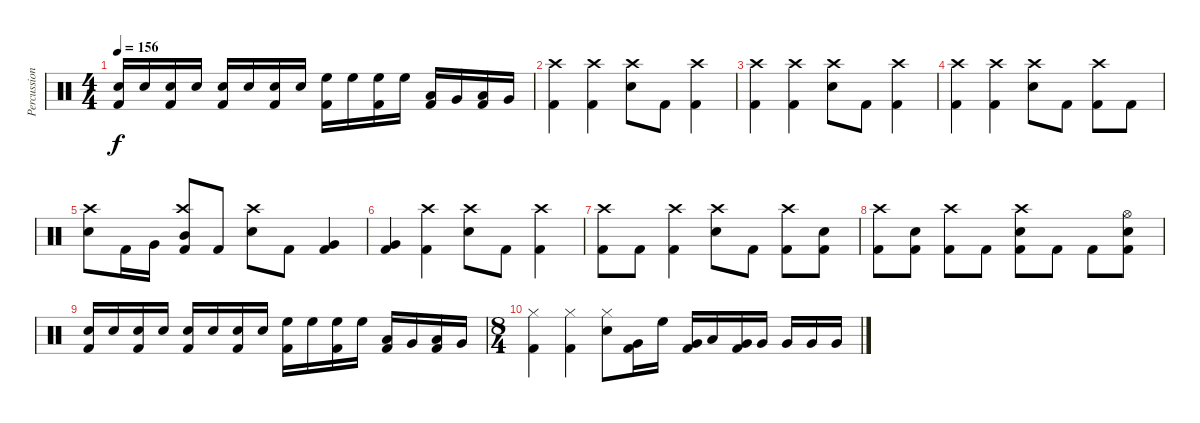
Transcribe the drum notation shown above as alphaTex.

\track ("Percussion" "Percussion") {instrument percussion}
\staff {score}
\articulation defaults
\ts (4 4)
\tempo 156
\clef neutral
\ks c
("Kick (hit) 2" "Electric Snare (hit)").16{dy f} "Electric Snare (hit)".16 ("Kick (hit) 2" "Electric Snare (hit)").16 "Electric Snare (hit)".16 ("Kick (hit) 2" "Electric Snare (hit)").16 "Electric Snare (hit)".16 ("Kick (hit) 2" "Electric Snare (hit)").16 "Electric Snare (hit)".16 ("Kick (hit) 2" "High Floor Tom (hit)").16 "High Floor Tom (hit)".16 ("Kick (hit) 2" "High Floor Tom (hit)").16 "High Floor Tom (hit)".16 ("Kick (hit) 2" "Low Tom (hit)").16 "Very Low Tom (hit)".16 ("Kick (hit) 2" "Low Tom (hit)").16 "Very Low Tom (hit)".16 |
("Kick (hit) 2" "Crash high (hit)").4 ("Kick (hit) 2" "Crash high (hit)").4 ("Electric Snare (hit)" "Crash high (hit)").8 "Kick (hit) 2".8 ("Kick (hit) 2" "Crash high (hit)").4 |
("Kick (hit) 2" "Crash high (hit)").4 ("Kick (hit) 2" "Crash high (hit)").4 ("Electric Snare (hit)" "Crash high (hit)").8 "Kick (hit) 2".8 ("Kick (hit) 2" "Crash high (hit)").4 |
("Kick (hit) 2" "Crash high (hit)").4 ("Kick (hit) 2" "Crash high (hit)").4 ("Electric Snare (hit)" "Crash high (hit)").8 "Kick (hit) 2".8 ("Kick (hit) 2" "Crash high (hit)").8 "Kick (hit) 2".8 |
("Electric Snare (hit)" "Crash high (hit)").8 "Kick (hit) 2".16 "Very Low Tom (hit)".16 ("Kick (hit) 2" "Mid Tom (hit)" "Crash high (hit)").8 "Kick (hit) 2".8 ("Electric Snare (hit)" "Crash high (hit)").8 "Kick (hit) 2".8 ("Kick (hit) 2" "Very Low Tom (hit)").4 |
("Kick (hit) 2" "Very Low Tom (hit)").4 ("Kick (hit) 2" "Crash high (hit)").4 ("Electric Snare (hit)" "Crash high (hit)").8 "Kick (hit) 2".8 ("Kick (hit) 2" "Crash high (hit)").4 |
("Kick (hit) 2" "Crash high (hit)").8 "Kick (hit) 2".8 ("Kick (hit) 2" "Crash high (hit)").4 ("Electric Snare (hit)" "Crash high (hit)").8 "Kick (hit) 2".8 ("Kick (hit) 2" "Crash high (hit)").8 ("Kick (hit) 2" "Electric Snare (hit)").8 |
("Kick (hit) 2" "Crash high (hit)").8 ("Kick (hit) 2" "Electric Snare (hit)").8 ("Kick (hit) 2" "Crash high (hit)").8 "Kick (hit) 2".8 ("Kick (hit) 2" "Electric Snare (hit)" "Crash high (hit)").8 "Kick (hit) 2".8 "Kick (hit) 2".8 ("Kick (hit) 2" "Electric Snare (hit)" "Hi-Hat (open)").8 |
("Kick (hit) 2" "Electric Snare (hit)").16 "Electric Snare (hit)".16 ("Kick (hit) 2" "Electric Snare (hit)").16 "Electric Snare (hit)".16 ("Kick (hit) 2" "Electric Snare (hit)").16 "Electric Snare (hit)".16 ("Kick (hit) 2" "Electric Snare (hit)").16 "Electric Snare (hit)".16 ("Kick (hit) 2" "High Floor Tom (hit)").16 "High Floor Tom (hit)".16 ("Kick (hit) 2" "High Floor Tom (hit)").16 "High Floor Tom (hit)".16 ("Kick (hit) 2" "Low Tom (hit)").16 "Very Low Tom (hit)".16 ("Kick (hit) 2" "Low Tom (hit)").16 "Very Low Tom (hit)".16 |
\ts (8 4)
("Kick (hit) 2" "Hi-Hat (closed)").4 ("Kick (hit) 2" "Hi-Hat (closed)").4 ("Electric Snare (hit)" "Hi-Hat (closed)").8 ("Kick (hit) 2" "Very Low Tom (hit)").16 "High Floor Tom (hit)".16 ("Kick (hit) 2" "Very Low Tom (hit)").16 "Low Tom (hit)".16 ("Kick (hit) 2" "Very Low Tom (hit)").16 "Very Low Tom (hit)".16 "Very Low Tom (hit)".16 "Very Low Tom (hit)".16 "Very Low Tom (hit)".16
